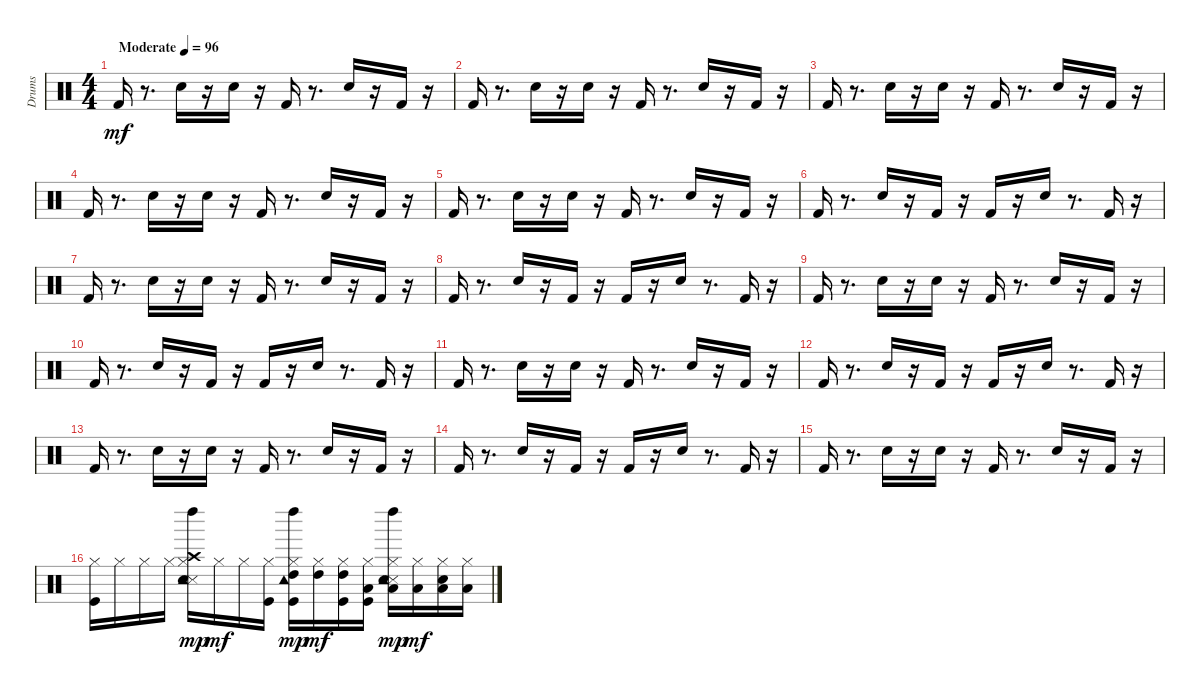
\track ("Drums" "Drums") {instrument percussion}
\staff {score}
\articulation defaults
\ts (4 4)
\tempo (96 "Moderate")
\clef neutral
\ks c "Kick (hit) 2".16{dy mf}
r.8{d} "Snare (hit) 2".16 r.16 "Snare (hit) 2".16 r.16 "Kick (hit) 2".16 r.8{d} "Snare (hit) 2".16 r.16 "Kick (hit) 2".16 r.16 |
"Kick (hit) 2".16 r.8{d} "Snare (hit) 2".16 r.16 "Snare (hit) 2".16 r.16 "Kick (hit) 2".16 r.8{d} "Snare (hit) 2".16 r.16 "Kick (hit) 2".16 r.16 |
"Kick (hit) 2".16 r.8{d} "Snare (hit) 2".16 r.16 "Snare (hit) 2".16 r.16 "Kick (hit) 2".16 r.8{d} "Snare (hit) 2".16 r.16 "Kick (hit) 2".16 r.16 |
"Kick (hit) 2".16 r.8{d} "Snare (hit) 2".16 r.16 "Snare (hit) 2".16 r.16 "Kick (hit) 2".16 r.8{d} "Snare (hit) 2".16 r.16 "Kick (hit) 2".16 r.16 |
"Kick (hit) 2".16 r.8{d} "Snare (hit) 2".16 r.16 "Snare (hit) 2".16 r.16 "Kick (hit) 2".16 r.8{d} "Snare (hit) 2".16 r.16 "Kick (hit) 2".16 r.16 |
"Kick (hit) 2".16 r.8{d} "Snare (hit) 2".16 r.16 "Kick (hit) 2".16 r.16 "Kick (hit) 2".16 r.16 "Snare (hit) 2".16 r.8{d} "Kick (hit) 2".16 r.16 |
"Kick (hit) 2".16 r.8{d} "Snare (hit) 2".16 r.16 "Snare (hit) 2".16 r.16 "Kick (hit) 2".16 r.8{d} "Snare (hit) 2".16 r.16 "Kick (hit) 2".16 r.16 |
"Kick (hit) 2".16 r.8{d} "Snare (hit) 2".16 r.16 "Kick (hit) 2".16 r.16 "Kick (hit) 2".16 r.16 "Snare (hit) 2".16 r.8{d} "Kick (hit) 2".16 r.16 |
"Kick (hit) 2".16 r.8{d} "Snare (hit) 2".16 r.16 "Snare (hit) 2".16 r.16 "Kick (hit) 2".16 r.8{d} "Snare (hit) 2".16 r.16 "Kick (hit) 2".16 r.16 |
"Kick (hit) 2".16 r.8{d} "Snare (hit) 2".16 r.16 "Kick (hit) 2".16 r.16 "Kick (hit) 2".16 r.16 "Snare (hit) 2".16 r.8{d} "Kick (hit) 2".16 r.16 |
"Kick (hit) 2".16 r.8{d} "Snare (hit) 2".16 r.16 "Snare (hit) 2".16 r.16 "Kick (hit) 2".16 r.8{d} "Snare (hit) 2".16 r.16 "Kick (hit) 2".16 r.16 |
"Kick (hit) 2".16 r.8{d} "Snare (hit) 2".16 r.16 "Kick (hit) 2".16 r.16 "Kick (hit) 2".16 r.16 "Snare (hit) 2".16 r.8{d} "Kick (hit) 2".16 r.16 |
"Kick (hit) 2".16 r.8{d} "Snare (hit) 2".16 r.16 "Snare (hit) 2".16 r.16 "Kick (hit) 2".16 r.8{d} "Snare (hit) 2".16 r.16 "Kick (hit) 2".16 r.16 |
"Kick (hit) 2".16 r.8{d} "Snare (hit) 2".16 r.16 "Kick (hit) 2".16 r.16 "Kick (hit) 2".16 r.16 "Snare (hit) 2".16 r.8{d} "Kick (hit) 2".16 r.16 |
"Kick (hit) 2".16 r.8{d} "Snare (hit) 2".16 r.16 "Snare (hit) 2".16 r.16 "Kick (hit) 2".16 r.8{d} "Snare (hit) 2".16 r.16 "Kick (hit) 2".16 r.16 |
("Kick (hit)" "Hi-Hat (closed)").16 "Hi-Hat (closed)".16 "Hi-Hat (closed)".16 "Hi-Hat (closed)".16 ("Snare (side stick) 3" "Snare (hit) 2" "Hi-Hat (closed)" "Crash high (hit)" "Tambourine (hit)" "Left Maraca (hit)").16{dy mp} "Hi-Hat (closed)".16{dy mf} "Hi-Hat (closed)".16 ("Kick (hit)" "Hi-Hat (closed)").16 ("Kick (hit)" "Hi-Hat (closed)" "High Tom (hit)" "Tambourine (hit)" "Left Maraca (hit)").16{dy mp} ("Hi-Hat (closed)" "High Tom (hit)").16{dy mf} ("Kick (hit)" "Hi-Hat (closed)" "High Tom (hit)").16 ("Kick (hit)" "Hi-Hat (closed)" "Low Tom (hit)").16 ("Snare (side stick) 3" "Snare (hit) 2" "Hi-Hat (closed)" "Low Tom (hit)" "Tambourine (hit)" "Left Maraca (hit)").16{dy mp} ("Hi-Hat (closed)" "Low Tom (hit)").16{dy mf} ("Snare (hit) 2" "Low Floor Tom (hit)" "Hi-Hat (closed)").16 ("Low Floor Tom (hit)" "Hi-Hat (closed)").16
